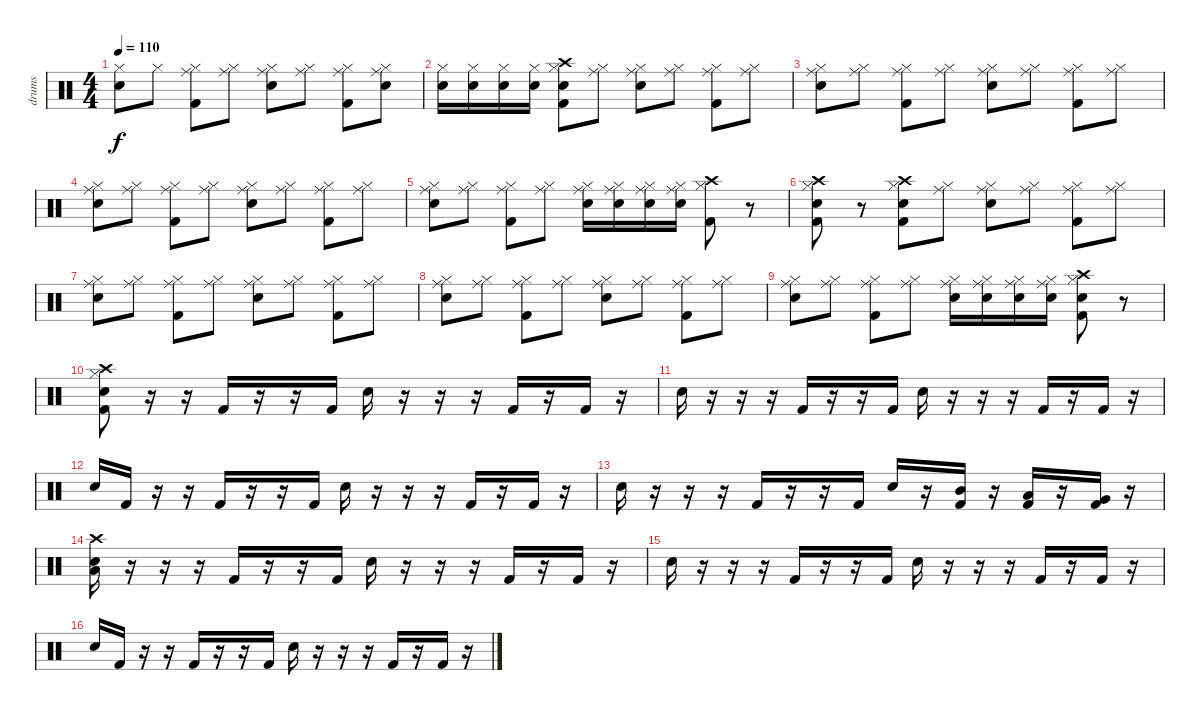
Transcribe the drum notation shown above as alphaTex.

\track ("drums" "drums") {instrument percussion}
\staff {score}
\articulation defaults
\ts (4 4)
\tempo 110
\clef neutral
\ks c
("Hi-Hat (closed)" "Electric Snare (hit)").8{dy f} "Hi-Hat (closed)".8 ("Hi-Hat (closed)" "Ride (middle)" "Kick (hit) 2").8 ("Hi-Hat (closed)" "Ride (middle)").8 ("Hi-Hat (closed)" "Ride (middle)" "Electric Snare (hit)").8 ("Hi-Hat (closed)" "Ride (middle)").8 ("Hi-Hat (closed)" "Ride (middle)" "Kick (hit) 2").8 ("Hi-Hat (closed)" "Ride (middle)" "Electric Snare (hit)").8 |
("Hi-Hat (closed)" "Electric Snare (hit)").16 ("Hi-Hat (closed)" "Electric Snare (hit)").16 ("Hi-Hat (closed)" "Electric Snare (hit)").16 ("Hi-Hat (closed)" "Electric Snare (hit)").16 ("Hi-Hat (closed)" "Electric Snare (hit)" "Crash high (hit)" "Kick (hit) 2").8 ("Hi-Hat (closed)" "Ride (middle)").8 ("Hi-Hat (closed)" "Ride (middle)" "Electric Snare (hit)").8 ("Hi-Hat (closed)" "Ride (middle)").8 ("Hi-Hat (closed)" "Ride (middle)" "Kick (hit) 2").8 ("Hi-Hat (closed)" "Ride (middle)").8 |
("Hi-Hat (closed)" "Ride (middle)" "Electric Snare (hit)").8 ("Hi-Hat (closed)" "Ride (middle)").8 ("Hi-Hat (closed)" "Ride (middle)" "Kick (hit) 2").8 ("Hi-Hat (closed)" "Ride (middle)").8 ("Hi-Hat (closed)" "Ride (middle)" "Electric Snare (hit)").8 ("Hi-Hat (closed)" "Ride (middle)").8 ("Hi-Hat (closed)" "Ride (middle)" "Kick (hit) 2").8 ("Hi-Hat (closed)" "Ride (middle)").8 |
("Hi-Hat (closed)" "Ride (middle)" "Electric Snare (hit)").8 ("Hi-Hat (closed)" "Ride (middle)").8 ("Hi-Hat (closed)" "Ride (middle)" "Kick (hit) 2").8 ("Hi-Hat (closed)" "Ride (middle)").8 ("Hi-Hat (closed)" "Ride (middle)" "Electric Snare (hit)").8 ("Hi-Hat (closed)" "Ride (middle)").8 ("Hi-Hat (closed)" "Ride (middle)" "Kick (hit) 2").8 ("Hi-Hat (closed)" "Ride (middle)").8 |
("Hi-Hat (closed)" "Ride (middle)" "Electric Snare (hit)").8 ("Hi-Hat (closed)" "Ride (middle)").8 ("Hi-Hat (closed)" "Ride (middle)" "Kick (hit) 2").8 ("Hi-Hat (closed)" "Ride (middle)").8 ("Hi-Hat (closed)" "Ride (middle)" "Electric Snare (hit)").16 ("Hi-Hat (closed)" "Ride (middle)" "Electric Snare (hit)").16 ("Hi-Hat (closed)" "Ride (middle)" "Electric Snare (hit)").16 ("Hi-Hat (closed)" "Ride (middle)" "Electric Snare (hit)").16 ("Hi-Hat (closed)" "Crash high (hit)" "Kick (hit) 2").8 r.8 |
("Hi-Hat (closed)" "Snare (hit) 2" "Crash high (hit)" "Kick (hit) 2").8 r.8 ("Hi-Hat (closed)" "Electric Snare (hit)" "Crash high (hit)" "Kick (hit) 2").8 ("Hi-Hat (closed)" "Ride (middle)").8 ("Hi-Hat (closed)" "Ride (middle)" "Electric Snare (hit)").8 ("Hi-Hat (closed)" "Ride (middle)").8 ("Hi-Hat (closed)" "Ride (middle)" "Kick (hit) 2").8 ("Hi-Hat (closed)" "Ride (middle)").8 |
("Hi-Hat (closed)" "Ride (middle)" "Electric Snare (hit)").8 ("Hi-Hat (closed)" "Ride (middle)").8 ("Hi-Hat (closed)" "Ride (middle)" "Kick (hit) 2").8 ("Hi-Hat (closed)" "Ride (middle)").8 ("Hi-Hat (closed)" "Ride (middle)" "Electric Snare (hit)").8 ("Hi-Hat (closed)" "Ride (middle)").8 ("Hi-Hat (closed)" "Ride (middle)" "Kick (hit) 2").8 ("Hi-Hat (closed)" "Ride (middle)").8 |
("Hi-Hat (closed)" "Ride (middle)" "Electric Snare (hit)").8 ("Hi-Hat (closed)" "Ride (middle)").8 ("Hi-Hat (closed)" "Ride (middle)" "Kick (hit) 2").8 ("Hi-Hat (closed)" "Ride (middle)").8 ("Hi-Hat (closed)" "Ride (middle)" "Electric Snare (hit)").8 ("Hi-Hat (closed)" "Ride (middle)").8 ("Hi-Hat (closed)" "Ride (middle)" "Kick (hit) 2").8 ("Hi-Hat (closed)" "Ride (middle)").8 |
("Hi-Hat (closed)" "Ride (middle)" "Electric Snare (hit)").8 ("Hi-Hat (closed)" "Ride (middle)").8 ("Hi-Hat (closed)" "Ride (middle)" "Kick (hit) 2").8 ("Hi-Hat (closed)" "Ride (middle)").8 ("Hi-Hat (closed)" "Ride (middle)" "Electric Snare (hit)").16 ("Hi-Hat (closed)" "Ride (middle)" "Electric Snare (hit)").16 ("Hi-Hat (closed)" "Ride (middle)" "Electric Snare (hit)").16 ("Hi-Hat (closed)" "Ride (middle)" "Electric Snare (hit)").16 ("Hi-Hat (closed)" "Snare (hit) 2" "Crash high (hit)" "Kick (hit) 2").8 r.8 |
("Hi-Hat (closed)" "Snare (hit) 2" "Crash high (hit)" "Kick (hit) 2").8 r.16 r.16 "Kick (hit) 2".16 r.16 r.16 "Kick (hit) 2".16 "Electric Snare (hit)".16 r.16 r.16 r.16 "Kick (hit) 2".16 r.16 "Kick (hit) 2".16 r.16 |
"Electric Snare (hit)".16 r.16 r.16 r.16 "Kick (hit) 2".16 r.16 r.16 "Kick (hit) 2".16 "Electric Snare (hit)".16 r.16 r.16 r.16 "Kick (hit) 2".16 r.16 "Kick (hit) 2".16 r.16 |
"Electric Snare (hit)".16 "Kick (hit) 2".16 r.16 r.16 "Kick (hit) 2".16 r.16 r.16 "Kick (hit) 2".16 "Electric Snare (hit)".16 r.16 r.16 r.16 "Kick (hit) 2".16 r.16 "Kick (hit) 2".16 r.16 |
"Electric Snare (hit)".16 r.16 r.16 r.16 "Kick (hit) 2".16 r.16 r.16 "Kick (hit) 2".16 "Electric Snare (hit)".16 r.16 ("Mid Tom (hit)" "Kick (hit) 2").16 r.16 ("Low Tom (hit)" "Kick (hit) 2").16 r.16 ("Very Low Tom (hit)" "Kick (hit) 2").16 r.16 |
("Electric Snare (hit)" "Crash high (hit)" "Low Floor Tom (hit)").16 r.16 r.16 r.16 "Kick (hit) 2".16 r.16 r.16 "Kick (hit) 2".16 "Electric Snare (hit)".16 r.16 r.16 r.16 "Kick (hit) 2".16 r.16 "Kick (hit) 2".16 r.16 |
"Electric Snare (hit)".16 r.16 r.16 r.16 "Kick (hit) 2".16 r.16 r.16 "Kick (hit) 2".16 "Electric Snare (hit)".16 r.16 r.16 r.16 "Kick (hit) 2".16 r.16 "Kick (hit) 2".16 r.16 |
"Electric Snare (hit)".16 "Kick (hit) 2".16 r.16 r.16 "Kick (hit) 2".16 r.16 r.16 "Kick (hit) 2".16 "Electric Snare (hit)".16 r.16 r.16 r.16 "Kick (hit) 2".16 r.16 "Kick (hit) 2".16 r.16
